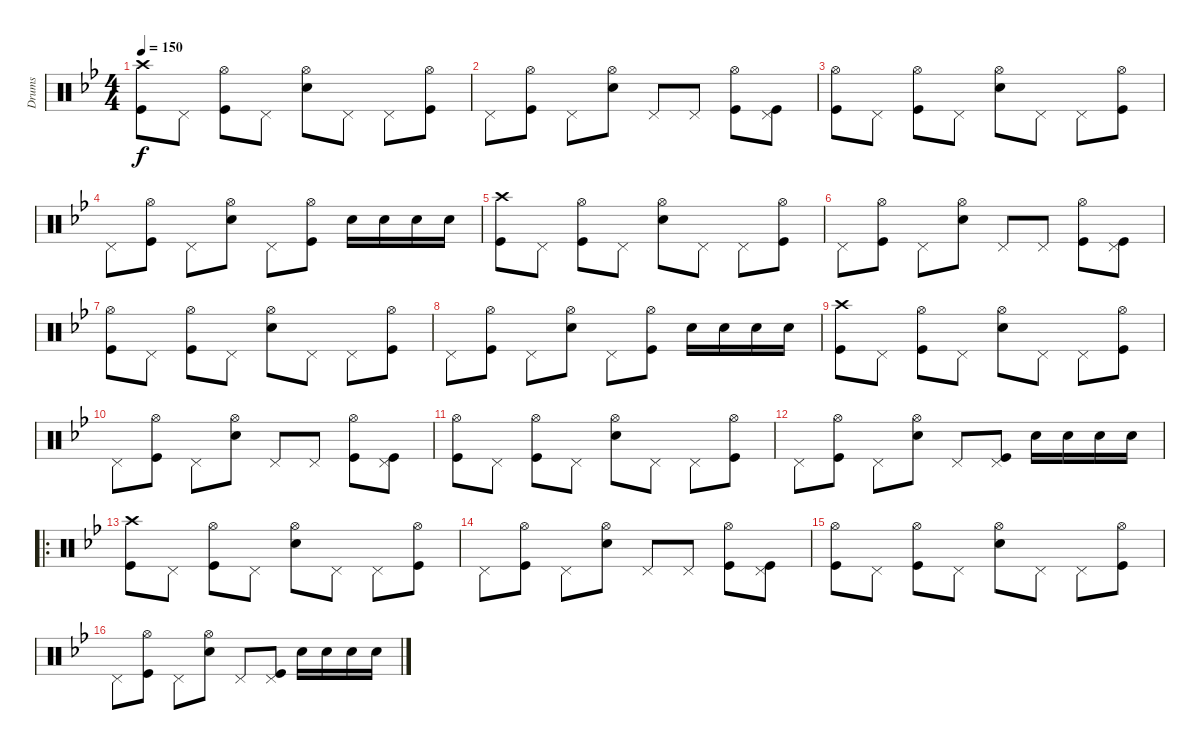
\track ("Drums" "Drums") {instrument percussion}
\staff {score}
\articulation defaults
\ts (4 4)
\tempo 150
\clef neutral
\ks bb
("Crash high (hit)" "Kick (hit)").8{dy f} "Pedal Hi-Hat (hit)".8 ("Hi-Hat (open)" "Kick (hit)").8 "Pedal Hi-Hat (hit)".8 ("Hi-Hat (open)" "Electric Snare (hit)").8 "Pedal Hi-Hat (hit)".8 "Pedal Hi-Hat (hit)".8 ("Hi-Hat (open)" "Kick (hit)").8 |
"Pedal Hi-Hat (hit)".8 ("Hi-Hat (open)" "Kick (hit)").8 "Pedal Hi-Hat (hit)".8 ("Hi-Hat (open)" "Electric Snare (hit)").8 "Pedal Hi-Hat (hit)".8 "Pedal Hi-Hat (hit)".8 ("Hi-Hat (open)" "Kick (hit)").8 ("Pedal Hi-Hat (hit)" "Kick (hit)").8 |
("Hi-Hat (open)" "Kick (hit)").8 "Pedal Hi-Hat (hit)".8 ("Hi-Hat (open)" "Kick (hit)").8 "Pedal Hi-Hat (hit)".8 ("Hi-Hat (open)" "Electric Snare (hit)").8 "Pedal Hi-Hat (hit)".8 "Pedal Hi-Hat (hit)".8 ("Hi-Hat (open)" "Kick (hit)").8 |
"Pedal Hi-Hat (hit)".8 ("Hi-Hat (open)" "Kick (hit)").8 "Pedal Hi-Hat (hit)".8 ("Hi-Hat (open)" "Electric Snare (hit)").8 "Pedal Hi-Hat (hit)".8 ("Hi-Hat (open)" "Kick (hit)").8 "Electric Snare (hit)".16 "Electric Snare (hit)".16 "Electric Snare (hit)".16 "Electric Snare (hit)".16 |
("Crash high (hit)" "Kick (hit)").8 "Pedal Hi-Hat (hit)".8 ("Hi-Hat (open)" "Kick (hit)").8 "Pedal Hi-Hat (hit)".8 ("Hi-Hat (open)" "Electric Snare (hit)").8 "Pedal Hi-Hat (hit)".8 "Pedal Hi-Hat (hit)".8 ("Hi-Hat (open)" "Kick (hit)").8 |
"Pedal Hi-Hat (hit)".8 ("Hi-Hat (open)" "Kick (hit)").8 "Pedal Hi-Hat (hit)".8 ("Hi-Hat (open)" "Electric Snare (hit)").8 "Pedal Hi-Hat (hit)".8 "Pedal Hi-Hat (hit)".8 ("Hi-Hat (open)" "Kick (hit)").8 ("Pedal Hi-Hat (hit)" "Kick (hit)").8 |
("Hi-Hat (open)" "Kick (hit)").8 "Pedal Hi-Hat (hit)".8 ("Hi-Hat (open)" "Kick (hit)").8 "Pedal Hi-Hat (hit)".8 ("Hi-Hat (open)" "Electric Snare (hit)").8 "Pedal Hi-Hat (hit)".8 "Pedal Hi-Hat (hit)".8 ("Hi-Hat (open)" "Kick (hit)").8 |
"Pedal Hi-Hat (hit)".8 ("Hi-Hat (open)" "Kick (hit)").8 "Pedal Hi-Hat (hit)".8 ("Hi-Hat (open)" "Electric Snare (hit)").8 "Pedal Hi-Hat (hit)".8 ("Hi-Hat (open)" "Kick (hit)").8 "Electric Snare (hit)".16 "Electric Snare (hit)".16 "Electric Snare (hit)".16 "Electric Snare (hit)".16 |
("Crash high (hit)" "Kick (hit)").8 "Pedal Hi-Hat (hit)".8 ("Hi-Hat (open)" "Kick (hit)").8 "Pedal Hi-Hat (hit)".8 ("Hi-Hat (open)" "Electric Snare (hit)").8 "Pedal Hi-Hat (hit)".8 "Pedal Hi-Hat (hit)".8 ("Hi-Hat (open)" "Kick (hit)").8 |
"Pedal Hi-Hat (hit)".8 ("Hi-Hat (open)" "Kick (hit)").8 "Pedal Hi-Hat (hit)".8 ("Hi-Hat (open)" "Electric Snare (hit)").8 "Pedal Hi-Hat (hit)".8 "Pedal Hi-Hat (hit)".8 ("Hi-Hat (open)" "Kick (hit)").8 ("Pedal Hi-Hat (hit)" "Kick (hit)").8 |
("Hi-Hat (open)" "Kick (hit)").8 "Pedal Hi-Hat (hit)".8 ("Hi-Hat (open)" "Kick (hit)").8 "Pedal Hi-Hat (hit)".8 ("Hi-Hat (open)" "Electric Snare (hit)").8 "Pedal Hi-Hat (hit)".8 "Pedal Hi-Hat (hit)".8 ("Hi-Hat (open)" "Kick (hit)").8 |
"Pedal Hi-Hat (hit)".8 ("Hi-Hat (open)" "Kick (hit)").8 "Pedal Hi-Hat (hit)".8 ("Hi-Hat (open)" "Electric Snare (hit)").8 "Pedal Hi-Hat (hit)".8 ("Pedal Hi-Hat (hit)" "Kick (hit)").8 "Electric Snare (hit)".16 "Electric Snare (hit)".16 "Electric Snare (hit)".16 "Electric Snare (hit)".16 |
\ro
("Crash high (hit)" "Kick (hit)").8 "Pedal Hi-Hat (hit)".8 ("Hi-Hat (open)" "Kick (hit)").8 "Pedal Hi-Hat (hit)".8 ("Hi-Hat (open)" "Electric Snare (hit)").8 "Pedal Hi-Hat (hit)".8 "Pedal Hi-Hat (hit)".8 ("Hi-Hat (open)" "Kick (hit)").8 |
"Pedal Hi-Hat (hit)".8 ("Hi-Hat (open)" "Kick (hit)").8 "Pedal Hi-Hat (hit)".8 ("Hi-Hat (open)" "Electric Snare (hit)").8 "Pedal Hi-Hat (hit)".8 "Pedal Hi-Hat (hit)".8 ("Hi-Hat (open)" "Kick (hit)").8 ("Pedal Hi-Hat (hit)" "Kick (hit)").8 |
("Hi-Hat (open)" "Kick (hit)").8 "Pedal Hi-Hat (hit)".8 ("Hi-Hat (open)" "Kick (hit)").8 "Pedal Hi-Hat (hit)".8 ("Hi-Hat (open)" "Electric Snare (hit)").8 "Pedal Hi-Hat (hit)".8 "Pedal Hi-Hat (hit)".8 ("Hi-Hat (open)" "Kick (hit)").8 |
"Pedal Hi-Hat (hit)".8 ("Hi-Hat (open)" "Kick (hit)").8 "Pedal Hi-Hat (hit)".8 ("Hi-Hat (open)" "Electric Snare (hit)").8 "Pedal Hi-Hat (hit)".8 ("Pedal Hi-Hat (hit)" "Kick (hit)").8 "Electric Snare (hit)".16 "Electric Snare (hit)".16 "Electric Snare (hit)".16 "Electric Snare (hit)".16
